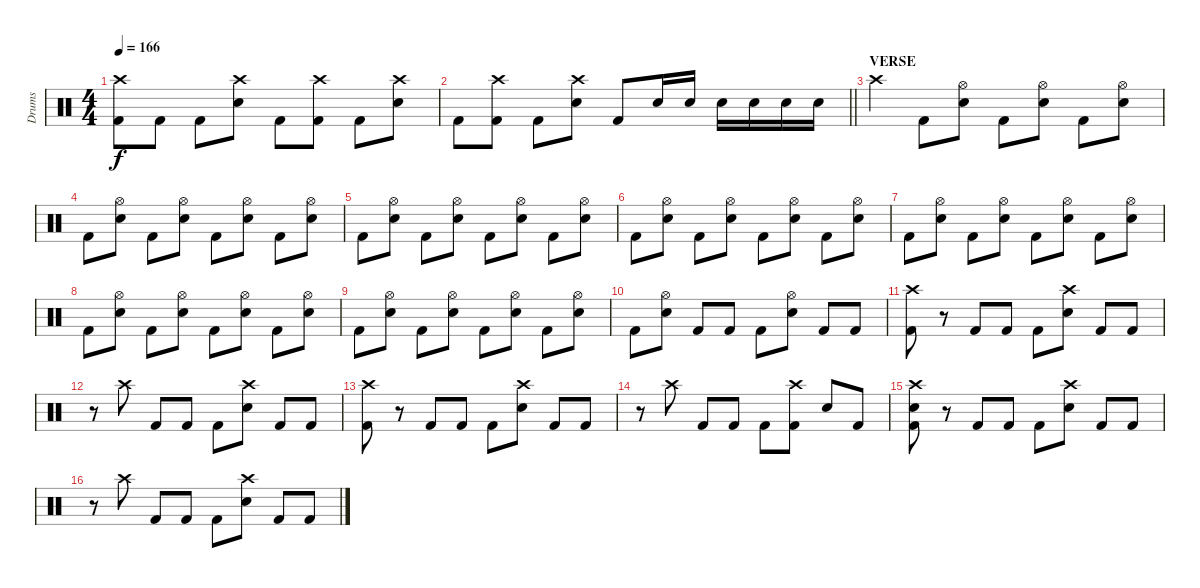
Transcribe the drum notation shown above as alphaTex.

\track ("Drums" "Drums") {instrument percussion}
\staff {score}
\articulation defaults
\ts (4 4)
\tempo 166
\clef neutral
\ks c
("Crash high (hit)" "Kick (hit) 2").8{dy f} "Kick (hit) 2".8 "Kick (hit) 2".8 ("Crash high (hit)" "Snare (hit) 2").8 "Kick (hit) 2".8 ("Crash high (hit)" "Kick (hit) 2").8 "Kick (hit) 2".8 ("Crash high (hit)" "Snare (hit) 2").8 |
\barLineRight lightlight "Kick (hit) 2".8
("Crash high (hit)" "Kick (hit) 2").8 "Kick (hit) 2".8 ("Crash high (hit)" "Snare (hit) 2").8 "Kick (hit) 2".8 "Snare (hit) 2".16 "Snare (hit) 2".16 "Snare (hit) 2".16 "Snare (hit) 2".16 "Snare (hit) 2".16 "Snare (hit) 2".16 |
\section ("" "VERSE")
"Crash high (hit)".4 "Kick (hit) 2".8 ("Hi-Hat (open)" "Snare (hit) 2").8 "Kick (hit) 2".8 ("Hi-Hat (open)" "Snare (hit) 2").8 "Kick (hit) 2".8 ("Hi-Hat (open)" "Snare (hit) 2").8 |
"Kick (hit) 2".8 ("Hi-Hat (open)" "Snare (hit) 2").8 "Kick (hit) 2".8 ("Hi-Hat (open)" "Snare (hit) 2").8 "Kick (hit) 2".8 ("Hi-Hat (open)" "Snare (hit) 2").8 "Kick (hit) 2".8 ("Hi-Hat (open)" "Snare (hit) 2").8 |
"Kick (hit) 2".8 ("Hi-Hat (open)" "Snare (hit) 2").8 "Kick (hit) 2".8 ("Hi-Hat (open)" "Snare (hit) 2").8 "Kick (hit) 2".8 ("Hi-Hat (open)" "Snare (hit) 2").8 "Kick (hit) 2".8 ("Hi-Hat (open)" "Snare (hit) 2").8 |
"Kick (hit) 2".8 ("Hi-Hat (open)" "Snare (hit) 2").8 "Kick (hit) 2".8 ("Hi-Hat (open)" "Snare (hit) 2").8 "Kick (hit) 2".8 ("Hi-Hat (open)" "Snare (hit) 2").8 "Kick (hit) 2".8 ("Hi-Hat (open)" "Snare (hit) 2").8 |
"Kick (hit) 2".8 ("Hi-Hat (open)" "Snare (hit) 2").8 "Kick (hit) 2".8 ("Hi-Hat (open)" "Snare (hit) 2").8 "Kick (hit) 2".8 ("Hi-Hat (open)" "Snare (hit) 2").8 "Kick (hit) 2".8 ("Hi-Hat (open)" "Snare (hit) 2").8 |
"Kick (hit) 2".8 ("Hi-Hat (open)" "Snare (hit) 2").8 "Kick (hit) 2".8 ("Hi-Hat (open)" "Snare (hit) 2").8 "Kick (hit) 2".8 ("Hi-Hat (open)" "Snare (hit) 2").8 "Kick (hit) 2".8 ("Hi-Hat (open)" "Snare (hit) 2").8 |
"Kick (hit) 2".8 ("Hi-Hat (open)" "Snare (hit) 2").8 "Kick (hit) 2".8 ("Hi-Hat (open)" "Snare (hit) 2").8 "Kick (hit) 2".8 ("Hi-Hat (open)" "Snare (hit) 2").8 "Kick (hit) 2".8 ("Hi-Hat (open)" "Snare (hit) 2").8 |
"Kick (hit) 2".8 ("Hi-Hat (open)" "Snare (hit) 2").8 "Kick (hit) 2".8 "Kick (hit) 2".8 "Kick (hit) 2".8 ("Hi-Hat (open)" "Snare (hit) 2").8 "Kick (hit) 2".8 "Kick (hit) 2".8 |
("Crash high (hit)" "Kick (hit) 2").8 r.8 "Kick (hit) 2".8 "Kick (hit) 2".8 "Kick (hit) 2".8 ("Crash high (hit)" "Snare (hit) 2").8 "Kick (hit) 2".8 "Kick (hit) 2".8 |
r.8 "Crash high (hit)".8 "Kick (hit) 2".8 "Kick (hit) 2".8 "Kick (hit) 2".8 ("Crash high (hit)" "Snare (hit) 2").8 "Kick (hit) 2".8 "Kick (hit) 2".8 |
("Crash high (hit)" "Kick (hit) 2").8 r.8 "Kick (hit) 2".8 "Kick (hit) 2".8 "Kick (hit) 2".8 ("Crash high (hit)" "Snare (hit) 2").8 "Kick (hit) 2".8 "Kick (hit) 2".8 |
r.8 "Crash high (hit)".8 "Kick (hit) 2".8 "Kick (hit) 2".8 "Kick (hit) 2".8 ("Crash high (hit)" "Kick (hit) 2").8 "Snare (hit) 2".8 "Kick (hit) 2".8 |
("Crash high (hit)" "Snare (hit) 2" "Kick (hit) 2").8 r.8 "Kick (hit) 2".8 "Kick (hit) 2".8 "Kick (hit) 2".8 ("Crash high (hit)" "Snare (hit) 2").8 "Kick (hit) 2".8 "Kick (hit) 2".8 |
r.8 "Crash high (hit)".8 "Kick (hit) 2".8 "Kick (hit) 2".8 "Kick (hit) 2".8 ("Crash high (hit)" "Snare (hit) 2").8 "Kick (hit) 2".8 "Kick (hit) 2".8
